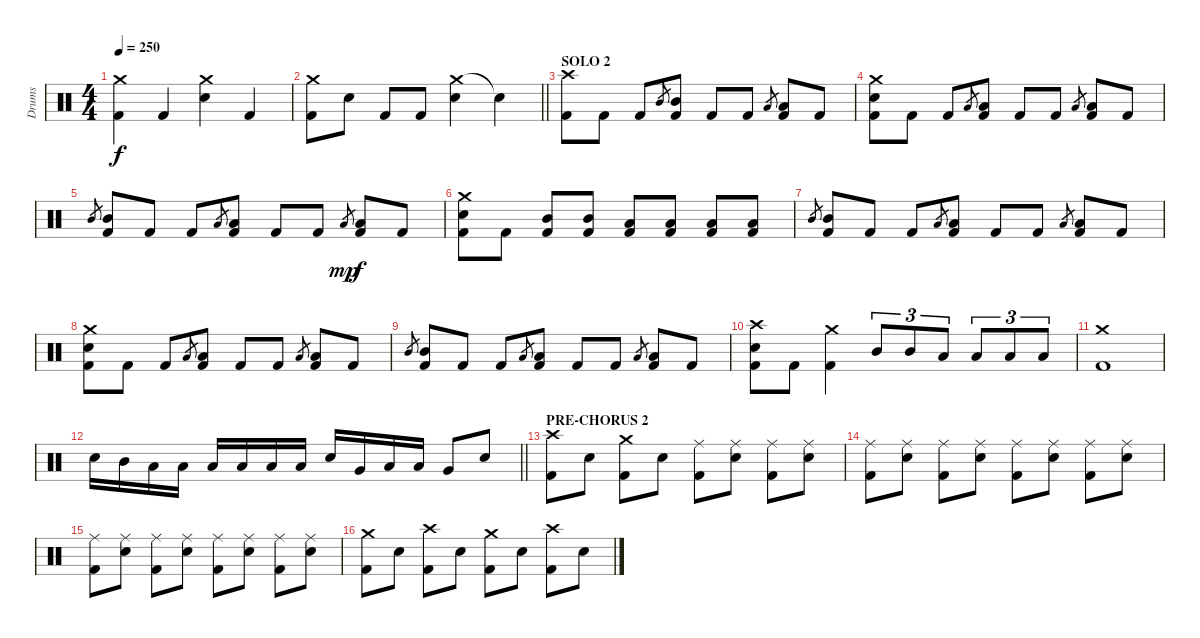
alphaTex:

\track ("Drums" "Drums") {instrument percussion}
\staff {score}
\articulation defaults
\ts (4 4)
\tempo 250
\clef neutral
\ks c
("Crash medium (hit)" "Kick (hit) 2").4{dy f} "Kick (hit) 2".4 ("Crash medium (hit)" "Electric Snare (hit)").4 "Kick (hit) 2".4 |
\barLineRight lightlight
("Crash medium (hit)" "Kick (hit) 2").8 "Electric Snare (hit)".8 "Kick (hit) 2".8 "Kick (hit) 2".8 ("Crash medium (hit)" "Electric Snare (hit)").4 "Snare (hit)"{t}.4 |
\section ("" "SOLO 2")
("Crash high (hit)" "Kick (hit) 2").8 "Kick (hit) 2".8 "Kick (hit) 2".8 "Mid Tom (hit)".8{gr} ("Mid Tom (hit)" "Kick (hit) 2").8 "Kick (hit) 2".8 "Kick (hit) 2".8 "Low Tom (hit)".8{gr} ("Low Tom (hit)" "Kick (hit) 2").8 "Kick (hit) 2".8 |
("Crash medium (hit)" "Electric Snare (hit)" "Kick (hit) 2").8 "Kick (hit) 2".8 "Kick (hit) 2".8 "Low Tom (hit)".8{gr} ("Low Tom (hit)" "Kick (hit) 2").8 "Kick (hit) 2".8 "Kick (hit) 2".8 "Low Floor Tom (hit)".8{gr} ("Low Floor Tom (hit)" "Kick (hit) 2").8 "Kick (hit) 2".8 |
"Mid Tom (hit)".8{gr} ("Mid Tom (hit)" "Kick (hit) 2").8 "Kick (hit) 2".8 "Kick (hit) 2".8 "Low Tom (hit)".8{gr} ("Low Tom (hit)" "Kick (hit) 2").8 "Kick (hit) 2".8 "Kick (hit) 2".8 "Low Floor Tom (hit)".8{gr dy mp} ("Low Floor Tom (hit)" "Kick (hit) 2").8{dy f} "Kick (hit) 2".8 |
("Crash medium (hit)" "Electric Snare (hit)" "Kick (hit) 2").8 "Kick (hit) 2".8 ("Mid Tom (hit)" "Kick (hit) 2").8 ("Mid Tom (hit)" "Kick (hit) 2").8 ("Low Tom (hit)" "Kick (hit) 2").8 ("Low Tom (hit)" "Kick (hit) 2").8 ("Low Floor Tom (hit)" "Kick (hit) 2").8 ("Low Floor Tom (hit)" "Kick (hit) 2").8 |
"Mid Tom (hit)".8{gr} ("Mid Tom (hit)" "Kick (hit) 2").8 "Kick (hit) 2".8 "Kick (hit) 2".8 "Low Tom (hit)".8{gr} ("Low Tom (hit)" "Kick (hit) 2").8 "Kick (hit) 2".8 "Kick (hit) 2".8 "Low Floor Tom (hit)".8{gr} ("Low Floor Tom (hit)" "Kick (hit) 2").8 "Kick (hit) 2".8 |
("Crash medium (hit)" "Electric Snare (hit)" "Kick (hit) 2").8 "Kick (hit) 2".8 "Kick (hit) 2".8 "Low Tom (hit)".8{gr} ("Low Tom (hit)" "Kick (hit) 2").8 "Kick (hit) 2".8 "Kick (hit) 2".8 "Low Floor Tom (hit)".8{gr} ("Low Floor Tom (hit)" "Kick (hit) 2").8 "Kick (hit) 2".8 |
"Mid Tom (hit)".8{gr} ("Mid Tom (hit)" "Kick (hit) 2").8 "Kick (hit) 2".8 "Kick (hit) 2".8 "Low Tom (hit)".8{gr} ("Low Tom (hit)" "Kick (hit) 2").8 "Kick (hit) 2".8 "Kick (hit) 2".8 "Low Floor Tom (hit)".8{gr} ("Low Floor Tom (hit)" "Kick (hit) 2").8 "Kick (hit) 2".8 |
("Crash high (hit)" "Electric Snare (hit)" "Kick (hit) 2").8 "Kick (hit) 2".8 ("Crash medium (hit)" "Kick (hit) 2").4 "Mid Tom (hit)".8{tu (3 2)} "Mid Tom (hit)".8{tu (3 2)} "Low Tom (hit)".8{tu (3 2)} "Low Tom (hit)".8{tu (3 2)} "Low Floor Tom (hit)".8{tu (3 2)} "Low Floor Tom (hit)".8{tu (3 2)} |
("Crash medium (hit)" "Kick (hit) 2").1 |
\barLineRight lightlight "Electric Snare (hit)".16 "Mid Tom (hit)".16 "Low Floor Tom (hit)".16 "Low Floor Tom (hit)".16 "Low Tom (hit)".16 "Low Tom (hit)".16 "Low Floor Tom (hit)".16 "Low Floor Tom (hit)".16 "Electric Snare (hit)".16 "Very Low Tom (hit)".16 "Low Floor Tom (hit)".16 "Low Floor Tom (hit)".16 "Very Low Tom (hit)".8 "Electric Snare (hit)".8
|
\section ("" "PRE-CHORUS 2")
("Crash high (hit)" "Kick (hit) 2").8 "Electric Snare (hit)".8 ("Crash medium (hit)" "Kick (hit) 2").8 "Electric Snare (hit)".8 ("Ride (middle)" "Kick (hit) 2").8 ("Ride (middle)" "Electric Snare (hit)").8 ("Ride (middle)" "Kick (hit) 2").8 ("Ride (middle)" "Electric Snare (hit)").8 |
("Ride (middle)" "Kick (hit) 2").8 ("Ride (middle)" "Electric Snare (hit)").8 ("Ride (middle)" "Kick (hit) 2").8 ("Ride (middle)" "Electric Snare (hit)").8 ("Ride (middle)" "Kick (hit) 2").8 ("Ride (middle)" "Electric Snare (hit)").8 ("Ride (middle)" "Kick (hit) 2").8 ("Ride (middle)" "Electric Snare (hit)").8 |
("Ride (middle)" "Kick (hit) 2").8 ("Ride (middle)" "Electric Snare (hit)").8 ("Ride (middle)" "Kick (hit) 2").8 ("Ride (middle)" "Electric Snare (hit)").8 ("Ride (middle)" "Kick (hit) 2").8 ("Ride (middle)" "Electric Snare (hit)").8 ("Ride (middle)" "Kick (hit) 2").8 ("Ride (middle)" "Electric Snare (hit)").8 |
("Crash medium (hit)" "Kick (hit) 2").8 "Electric Snare (hit)".8 ("Crash high (hit)" "Kick (hit) 2").8 "Electric Snare (hit)".8 ("Crash medium (hit)" "Kick (hit) 2").8 "Electric Snare (hit)".8 ("Crash high (hit)" "Kick (hit) 2").8 "Electric Snare (hit)".8
